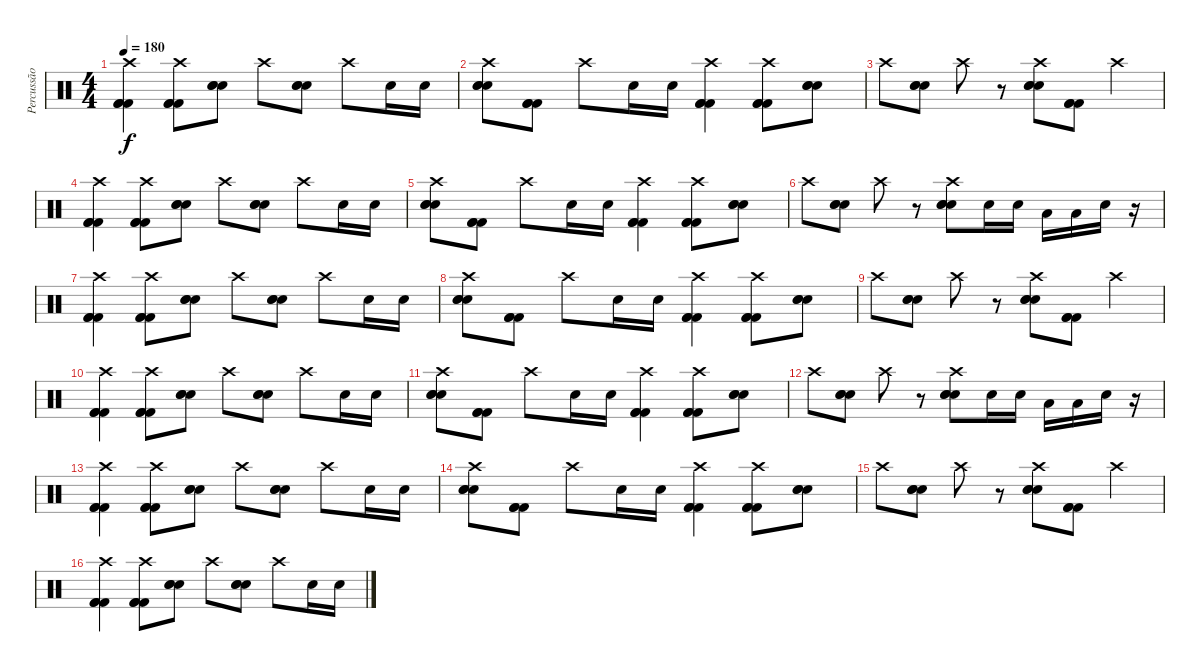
\track ("Percussão" "Percussão") {instrument percussion}
\staff {score}
\articulation defaults
\ts (4 4)
\tempo 180
\clef neutral
\ks c
("Crash high (hit)" "Kick (hit) 2" "Kick (hit) 2" "Kick (hit) 2").4{dy f} ("Crash high (hit)" "Kick (hit) 2" "Kick (hit) 2" "Kick (hit) 2").8 ("Electric Snare (hit)" "Electric Snare (hit)" "Electric Snare (hit)").8 "Crash high (hit)".8 ("Electric Snare (hit)" "Electric Snare (hit)" "Electric Snare (hit)").8 "Crash high (hit)".8 "Electric Snare (hit)".16 "Electric Snare (hit)".16 |
("Crash high (hit)" "Electric Snare (hit)" "Electric Snare (hit)" "Electric Snare (hit)").8 ("Kick (hit) 2" "Kick (hit) 2" "Kick (hit) 2").8 "Crash high (hit)".8 "Electric Snare (hit)".16 "Electric Snare (hit)".16 ("Crash high (hit)" "Kick (hit) 2" "Kick (hit) 2" "Kick (hit) 2").4 ("Crash high (hit)" "Kick (hit) 2" "Kick (hit) 2" "Kick (hit) 2").8 ("Electric Snare (hit)" "Electric Snare (hit)" "Electric Snare (hit)").8 |
"Crash high (hit)".8 ("Electric Snare (hit)" "Electric Snare (hit)" "Electric Snare (hit)").8 "Crash high (hit)".8 r.8 ("Crash high (hit)" "Electric Snare (hit)" "Electric Snare (hit)" "Electric Snare (hit)").8 ("Kick (hit) 2" "Kick (hit) 2" "Kick (hit) 2").8 "Crash high (hit)".4 |
("Crash high (hit)" "Kick (hit) 2" "Kick (hit) 2" "Kick (hit) 2").4 ("Crash high (hit)" "Kick (hit) 2" "Kick (hit) 2" "Kick (hit) 2").8 ("Electric Snare (hit)" "Electric Snare (hit)" "Electric Snare (hit)").8 "Crash high (hit)".8 ("Electric Snare (hit)" "Electric Snare (hit)" "Electric Snare (hit)").8 "Crash high (hit)".8 "Electric Snare (hit)".16 "Electric Snare (hit)".16 |
("Crash high (hit)" "Electric Snare (hit)" "Electric Snare (hit)" "Electric Snare (hit)").8 ("Kick (hit) 2" "Kick (hit) 2" "Kick (hit) 2").8 "Crash high (hit)".8 "Electric Snare (hit)".16 "Electric Snare (hit)".16 ("Crash high (hit)" "Kick (hit) 2" "Kick (hit) 2" "Kick (hit) 2").4 ("Crash high (hit)" "Kick (hit) 2" "Kick (hit) 2" "Kick (hit) 2").8 ("Electric Snare (hit)" "Electric Snare (hit)" "Electric Snare (hit)").8 |
"Crash high (hit)".8 ("Electric Snare (hit)" "Electric Snare (hit)" "Electric Snare (hit)").8 "Crash high (hit)".8 r.8 ("Crash high (hit)" "Electric Snare (hit)" "Electric Snare (hit)" "Electric Snare (hit)").8 "Electric Snare (hit)".16 "Electric Snare (hit)".16 "Low Tom (hit)".16 "Low Tom (hit)".16 "Electric Snare (hit)".16 r.16 |
("Crash high (hit)" "Kick (hit) 2" "Kick (hit) 2" "Kick (hit) 2").4 ("Crash high (hit)" "Kick (hit) 2" "Kick (hit) 2" "Kick (hit) 2").8 ("Electric Snare (hit)" "Electric Snare (hit)" "Electric Snare (hit)").8 "Crash high (hit)".8 ("Electric Snare (hit)" "Electric Snare (hit)" "Electric Snare (hit)").8 "Crash high (hit)".8 "Electric Snare (hit)".16 "Electric Snare (hit)".16 |
("Crash high (hit)" "Electric Snare (hit)" "Electric Snare (hit)" "Electric Snare (hit)").8 ("Kick (hit) 2" "Kick (hit) 2" "Kick (hit) 2").8 "Crash high (hit)".8 "Electric Snare (hit)".16 "Electric Snare (hit)".16 ("Crash high (hit)" "Kick (hit) 2" "Kick (hit) 2" "Kick (hit) 2").4 ("Crash high (hit)" "Kick (hit) 2" "Kick (hit) 2" "Kick (hit) 2").8 ("Electric Snare (hit)" "Electric Snare (hit)" "Electric Snare (hit)").8 |
"Crash high (hit)".8 ("Electric Snare (hit)" "Electric Snare (hit)" "Electric Snare (hit)").8 "Crash high (hit)".8 r.8 ("Crash high (hit)" "Electric Snare (hit)" "Electric Snare (hit)" "Electric Snare (hit)").8 ("Kick (hit) 2" "Kick (hit) 2" "Kick (hit) 2").8 "Crash high (hit)".4 |
("Crash high (hit)" "Kick (hit) 2" "Kick (hit) 2" "Kick (hit) 2").4 ("Crash high (hit)" "Kick (hit) 2" "Kick (hit) 2" "Kick (hit) 2").8 ("Electric Snare (hit)" "Electric Snare (hit)" "Electric Snare (hit)").8 "Crash high (hit)".8 ("Electric Snare (hit)" "Electric Snare (hit)" "Electric Snare (hit)").8 "Crash high (hit)".8 "Electric Snare (hit)".16 "Electric Snare (hit)".16 |
("Crash high (hit)" "Electric Snare (hit)" "Electric Snare (hit)" "Electric Snare (hit)").8 ("Kick (hit) 2" "Kick (hit) 2" "Kick (hit) 2").8 "Crash high (hit)".8 "Electric Snare (hit)".16 "Electric Snare (hit)".16 ("Crash high (hit)" "Kick (hit) 2" "Kick (hit) 2" "Kick (hit) 2").4 ("Crash high (hit)" "Kick (hit) 2" "Kick (hit) 2" "Kick (hit) 2").8 ("Electric Snare (hit)" "Electric Snare (hit)" "Electric Snare (hit)").8 |
"Crash high (hit)".8 ("Electric Snare (hit)" "Electric Snare (hit)" "Electric Snare (hit)").8 "Crash high (hit)".8 r.8 ("Crash high (hit)" "Electric Snare (hit)" "Electric Snare (hit)" "Electric Snare (hit)").8 "Electric Snare (hit)".16 "Electric Snare (hit)".16 "Low Tom (hit)".16 "Low Tom (hit)".16 "Electric Snare (hit)".16 r.16 |
("Crash high (hit)" "Kick (hit) 2" "Kick (hit) 2" "Kick (hit) 2").4 ("Crash high (hit)" "Kick (hit) 2" "Kick (hit) 2" "Kick (hit) 2").8 ("Electric Snare (hit)" "Electric Snare (hit)" "Electric Snare (hit)").8 "Crash high (hit)".8 ("Electric Snare (hit)" "Electric Snare (hit)" "Electric Snare (hit)").8 "Crash high (hit)".8 "Electric Snare (hit)".16 "Electric Snare (hit)".16 |
("Crash high (hit)" "Electric Snare (hit)" "Electric Snare (hit)" "Electric Snare (hit)").8 ("Kick (hit) 2" "Kick (hit) 2" "Kick (hit) 2").8 "Crash high (hit)".8 "Electric Snare (hit)".16 "Electric Snare (hit)".16 ("Crash high (hit)" "Kick (hit) 2" "Kick (hit) 2" "Kick (hit) 2").4 ("Crash high (hit)" "Kick (hit) 2" "Kick (hit) 2" "Kick (hit) 2").8 ("Electric Snare (hit)" "Electric Snare (hit)" "Electric Snare (hit)").8 |
"Crash high (hit)".8 ("Electric Snare (hit)" "Electric Snare (hit)" "Electric Snare (hit)").8 "Crash high (hit)".8 r.8 ("Crash high (hit)" "Electric Snare (hit)" "Electric Snare (hit)" "Electric Snare (hit)").8 ("Kick (hit) 2" "Kick (hit) 2" "Kick (hit) 2").8 "Crash high (hit)".4 |
("Crash high (hit)" "Kick (hit) 2" "Kick (hit) 2" "Kick (hit) 2").4 ("Crash high (hit)" "Kick (hit) 2" "Kick (hit) 2" "Kick (hit) 2").8 ("Electric Snare (hit)" "Electric Snare (hit)" "Electric Snare (hit)").8 "Crash high (hit)".8 ("Electric Snare (hit)" "Electric Snare (hit)" "Electric Snare (hit)").8 "Crash high (hit)".8 "Electric Snare (hit)".16 "Electric Snare (hit)".16
